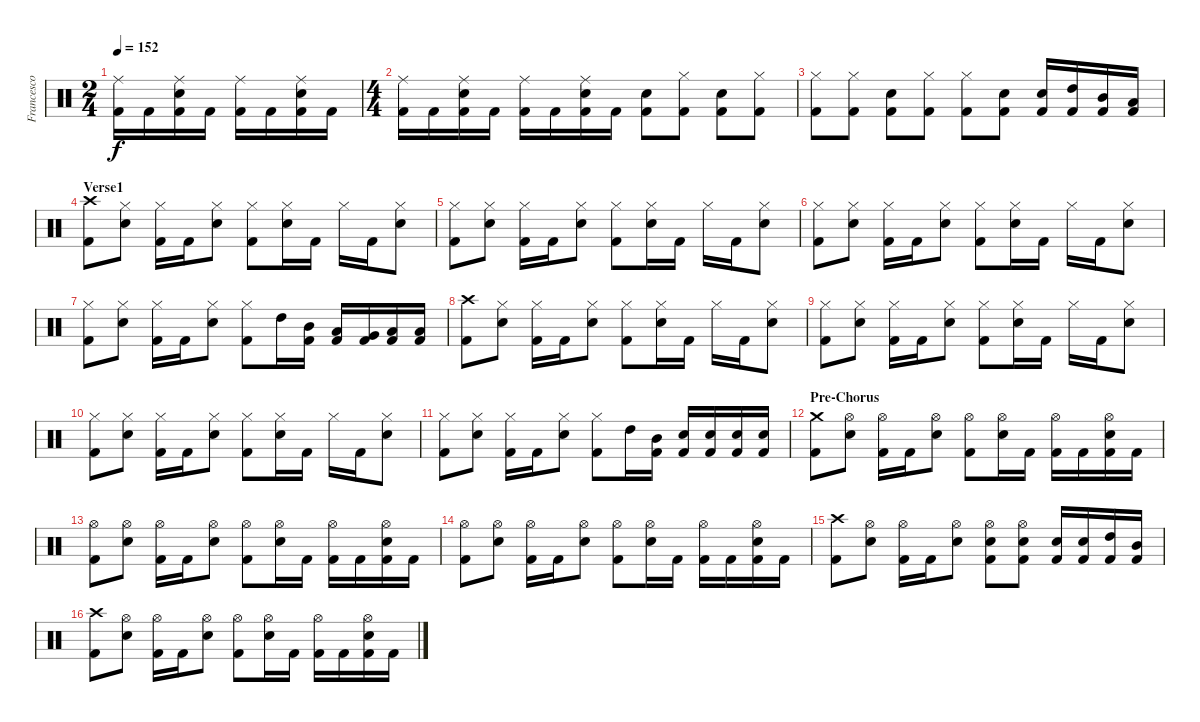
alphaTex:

\track ("Francesco Tresa" "Francesco ") {instrument percussion}
\staff {score}
\articulation defaults
\ts (2 4)
\tempo 152
\clef neutral
\ks c
("Kick (hit) 2" "Ride (middle)").16{dy f} "Kick (hit) 2".16 ("Kick (hit) 2" "Snare (hit) 2" "Ride (middle)").16 "Kick (hit) 2".16 ("Kick (hit) 2" "Ride (middle)").16 "Kick (hit) 2".16 ("Kick (hit) 2" "Snare (hit) 2" "Ride (middle)").16 "Kick (hit) 2".16 |
\ts (4 4)
("Kick (hit) 2" "Ride (middle)").16 "Kick (hit) 2".16 ("Kick (hit) 2" "Snare (hit) 2" "Ride (middle)").16 "Kick (hit) 2".16 ("Kick (hit) 2" "Ride (middle)").16 "Kick (hit) 2".16 ("Kick (hit) 2" "Snare (hit) 2" "Ride (middle)").16 "Kick (hit) 2".16 ("Kick (hit) 2" "Snare (hit) 2").8 ("Kick (hit) 2" "Hi-Hat (closed)").8 ("Kick (hit) 2" "Snare (hit) 2").8 ("Kick (hit) 2" "Hi-Hat (closed)").8 |
("Kick (hit) 2" "Hi-Hat (closed)").8 ("Kick (hit) 2" "Hi-Hat (closed)").8 ("Kick (hit) 2" "Snare (hit) 2").8 ("Kick (hit) 2" "Hi-Hat (closed)").8 ("Kick (hit) 2" "Hi-Hat (closed)").8 ("Kick (hit) 2" "Snare (hit) 2").8 ("Kick (hit) 2" "Snare (hit) 2").16 ("Kick (hit) 2" "High Tom (hit)").16 ("Kick (hit) 2" "Mid Tom (hit)").16 ("Kick (hit) 2" "Low Tom (hit)").16 |
\section ("" "Verse1")
("Kick (hit) 2" "Crash high (hit)").8 ("Snare (hit) 2" "Hi-Hat (closed)").8 ("Kick (hit) 2" "Hi-Hat (closed)").16 "Kick (hit) 2".16 ("Snare (hit) 2" "Hi-Hat (closed)").8 ("Kick (hit) 2" "Hi-Hat (closed)").8 ("Snare (hit) 2" "Hi-Hat (closed)").16 "Kick (hit) 2".16 "Hi-Hat (closed)".16 "Kick (hit) 2".16 ("Snare (hit) 2" "Hi-Hat (closed)").8 |
("Kick (hit) 2" "Hi-Hat (closed)").8 ("Snare (hit) 2" "Hi-Hat (closed)").8 ("Kick (hit) 2" "Hi-Hat (closed)").16 "Kick (hit) 2".16 ("Snare (hit) 2" "Hi-Hat (closed)").8 ("Kick (hit) 2" "Hi-Hat (closed)").8 ("Snare (hit) 2" "Hi-Hat (closed)").16 "Kick (hit) 2".16 "Hi-Hat (closed)".16 "Kick (hit) 2".16 ("Snare (hit) 2" "Hi-Hat (closed)").8 |
("Kick (hit) 2" "Hi-Hat (closed)").8 ("Snare (hit) 2" "Hi-Hat (closed)").8 ("Kick (hit) 2" "Hi-Hat (closed)").16 "Kick (hit) 2".16 ("Snare (hit) 2" "Hi-Hat (closed)").8 ("Kick (hit) 2" "Hi-Hat (closed)").8 ("Snare (hit) 2" "Hi-Hat (closed)").16 "Kick (hit) 2".16 "Hi-Hat (closed)".16 "Kick (hit) 2".16 ("Snare (hit) 2" "Hi-Hat (closed)").8 |
("Kick (hit) 2" "Hi-Hat (closed)").8 ("Snare (hit) 2" "Hi-Hat (closed)").8 ("Kick (hit) 2" "Hi-Hat (closed)").16 "Kick (hit) 2".16 ("Snare (hit) 2" "Hi-Hat (closed)").8 ("Kick (hit) 2" "Hi-Hat (closed)").8 "High Tom (hit)".16 ("Kick (hit) 2" "Mid Tom (hit)").16 ("Kick (hit) 2" "Low Tom (hit)").16 ("Kick (hit) 2" "Very Low Tom (hit)").16 ("Kick (hit) 2" "Low Floor Tom (hit)").16 ("Kick (hit) 2" "Low Floor Tom (hit)").16 |
("Kick (hit) 2" "Crash high (hit)").8 ("Snare (hit) 2" "Hi-Hat (closed)").8 ("Kick (hit) 2" "Hi-Hat (closed)").16 "Kick (hit) 2".16 ("Snare (hit) 2" "Hi-Hat (closed)").8 ("Kick (hit) 2" "Hi-Hat (closed)").8 ("Snare (hit) 2" "Hi-Hat (closed)").16 "Kick (hit) 2".16 "Hi-Hat (closed)".16 "Kick (hit) 2".16 ("Snare (hit) 2" "Hi-Hat (closed)").8 |
("Kick (hit) 2" "Hi-Hat (closed)").8 ("Snare (hit) 2" "Hi-Hat (closed)").8 ("Kick (hit) 2" "Hi-Hat (closed)").16 "Kick (hit) 2".16 ("Snare (hit) 2" "Hi-Hat (closed)").8 ("Kick (hit) 2" "Hi-Hat (closed)").8 ("Snare (hit) 2" "Hi-Hat (closed)").16 "Kick (hit) 2".16 "Hi-Hat (closed)".16 "Kick (hit) 2".16 ("Snare (hit) 2" "Hi-Hat (closed)").8 |
("Kick (hit) 2" "Hi-Hat (closed)").8 ("Snare (hit) 2" "Hi-Hat (closed)").8 ("Kick (hit) 2" "Hi-Hat (closed)").16 "Kick (hit) 2".16 ("Snare (hit) 2" "Hi-Hat (closed)").8 ("Kick (hit) 2" "Hi-Hat (closed)").8 ("Snare (hit) 2" "Hi-Hat (closed)").16 "Kick (hit) 2".16 "Hi-Hat (closed)".16 "Kick (hit) 2".16 ("Snare (hit) 2" "Hi-Hat (closed)").8 |
("Kick (hit) 2" "Hi-Hat (closed)").8 ("Snare (hit) 2" "Hi-Hat (closed)").8 ("Kick (hit) 2" "Hi-Hat (closed)").16 "Kick (hit) 2".16 ("Snare (hit) 2" "Hi-Hat (closed)").8 ("Kick (hit) 2" "Hi-Hat (closed)").8 "High Tom (hit)".16 ("Kick (hit) 2" "Mid Tom (hit)").16 ("Kick (hit) 2" "Snare (hit) 2").16 ("Kick (hit) 2" "Snare (hit) 2").16 ("Kick (hit) 2" "Snare (hit) 2").16 ("Kick (hit) 2" "Snare (hit) 2").16 |
\section ("" "Pre-Chorus")
("Kick (hit) 2" "Crash medium (hit)").8 ("Snare (hit) 2" "Hi-Hat (open)").8 ("Kick (hit) 2" "Hi-Hat (open)").16 "Kick (hit) 2".16 ("Snare (hit) 2" "Hi-Hat (open)").8 ("Kick (hit) 2" "Hi-Hat (open)").8 ("Snare (hit) 2" "Hi-Hat (open)").16 "Kick (hit) 2".16 ("Kick (hit) 2" "Hi-Hat (open)").16 "Kick (hit) 2".16 ("Kick (hit) 2" "Snare (hit) 2" "Hi-Hat (open)").16 "Kick (hit) 2".16 |
("Kick (hit) 2" "Hi-Hat (open)").8 ("Snare (hit) 2" "Hi-Hat (open)").8 ("Kick (hit) 2" "Hi-Hat (open)").16 "Kick (hit) 2".16 ("Snare (hit) 2" "Hi-Hat (open)").8 ("Kick (hit) 2" "Hi-Hat (open)").8 ("Snare (hit) 2" "Hi-Hat (open)").16 "Kick (hit) 2".16 ("Kick (hit) 2" "Hi-Hat (open)").16 "Kick (hit) 2".16 ("Kick (hit) 2" "Snare (hit) 2" "Hi-Hat (open)").16 "Kick (hit) 2".16 |
("Kick (hit) 2" "Hi-Hat (open)").8 ("Snare (hit) 2" "Hi-Hat (open)").8 ("Kick (hit) 2" "Hi-Hat (open)").16 "Kick (hit) 2".16 ("Snare (hit) 2" "Hi-Hat (open)").8 ("Kick (hit) 2" "Hi-Hat (open)").8 ("Snare (hit) 2" "Hi-Hat (open)").16 "Kick (hit) 2".16 ("Kick (hit) 2" "Hi-Hat (open)").16 "Kick (hit) 2".16 ("Kick (hit) 2" "Snare (hit) 2" "Hi-Hat (open)").16 "Kick (hit) 2".16 |
("Kick (hit) 2" "Crash high (hit)").8 ("Snare (hit) 2" "Hi-Hat (open)").8 ("Kick (hit) 2" "Hi-Hat (open)").16 "Kick (hit) 2".16 ("Snare (hit) 2" "Hi-Hat (open)").8 ("Kick (hit) 2" "Snare (hit) 2" "Hi-Hat (open)").8 ("Kick (hit) 2" "Snare (hit) 2" "Hi-Hat (open)").8 ("Kick (hit) 2" "Snare (hit) 2").16 ("Kick (hit) 2" "Snare (hit) 2").16 ("Kick (hit) 2" "High Tom (hit)").16 ("Kick (hit) 2" "Mid Tom (hit)").16 |
("Kick (hit) 2" "Crash high (hit)").8 ("Snare (hit) 2" "Hi-Hat (open)").8 ("Kick (hit) 2" "Hi-Hat (open)").16 "Kick (hit) 2".16 ("Snare (hit) 2" "Hi-Hat (open)").8 ("Kick (hit) 2" "Hi-Hat (open)").8 ("Snare (hit) 2" "Hi-Hat (open)").16 "Kick (hit) 2".16 ("Kick (hit) 2" "Hi-Hat (open)").16 "Kick (hit) 2".16 ("Kick (hit) 2" "Snare (hit) 2" "Hi-Hat (open)").16 "Kick (hit) 2".16
